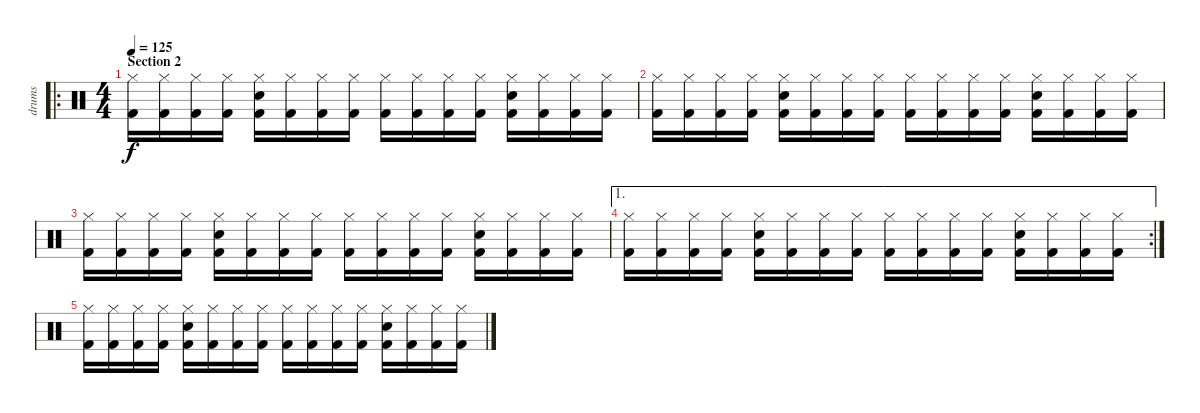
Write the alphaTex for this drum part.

\track ("drums" "drums") {instrument percussion}
\staff {score}
\articulation defaults
\ro
\ts (4 4)
\section ("" "Section 2")
\tempo 125
\clef neutral
\ks c
("Hi-Hat (closed)" "Kick (hit) 2").16{dy f} ("Hi-Hat (closed)" "Kick (hit) 2").16 ("Hi-Hat (closed)" "Kick (hit) 2").16 ("Hi-Hat (closed)" "Kick (hit) 2").16 ("Snare (hit) 2" "Hi-Hat (closed)" "Kick (hit) 2").16 ("Hi-Hat (closed)" "Kick (hit) 2").16 ("Hi-Hat (closed)" "Kick (hit) 2").16 ("Hi-Hat (closed)" "Kick (hit) 2").16 ("Hi-Hat (closed)" "Kick (hit) 2").16 ("Hi-Hat (closed)" "Kick (hit) 2").16 ("Hi-Hat (closed)" "Kick (hit) 2").16 ("Hi-Hat (closed)" "Kick (hit) 2").16 ("Snare (hit) 2" "Hi-Hat (closed)" "Kick (hit) 2").16 ("Hi-Hat (closed)" "Kick (hit) 2").16 ("Hi-Hat (closed)" "Kick (hit) 2").16 ("Hi-Hat (closed)" "Kick (hit) 2").16 |
("Hi-Hat (closed)" "Kick (hit) 2").16 ("Hi-Hat (closed)" "Kick (hit) 2").16 ("Hi-Hat (closed)" "Kick (hit) 2").16 ("Hi-Hat (closed)" "Kick (hit) 2").16 ("Snare (hit) 2" "Hi-Hat (closed)" "Kick (hit) 2").16 ("Hi-Hat (closed)" "Kick (hit) 2").16 ("Hi-Hat (closed)" "Kick (hit) 2").16 ("Hi-Hat (closed)" "Kick (hit) 2").16 ("Hi-Hat (closed)" "Kick (hit) 2").16 ("Hi-Hat (closed)" "Kick (hit) 2").16 ("Hi-Hat (closed)" "Kick (hit) 2").16 ("Hi-Hat (closed)" "Kick (hit) 2").16 ("Snare (hit) 2" "Hi-Hat (closed)" "Kick (hit) 2").16 ("Hi-Hat (closed)" "Kick (hit) 2").16 ("Hi-Hat (closed)" "Kick (hit) 2").16 ("Hi-Hat (closed)" "Kick (hit) 2").16 |
("Hi-Hat (closed)" "Kick (hit) 2").16 ("Hi-Hat (closed)" "Kick (hit) 2").16 ("Hi-Hat (closed)" "Kick (hit) 2").16 ("Hi-Hat (closed)" "Kick (hit) 2").16 ("Snare (hit) 2" "Hi-Hat (closed)" "Kick (hit) 2").16 ("Hi-Hat (closed)" "Kick (hit) 2").16 ("Hi-Hat (closed)" "Kick (hit) 2").16 ("Hi-Hat (closed)" "Kick (hit) 2").16 ("Hi-Hat (closed)" "Kick (hit) 2").16 ("Hi-Hat (closed)" "Kick (hit) 2").16 ("Hi-Hat (closed)" "Kick (hit) 2").16 ("Hi-Hat (closed)" "Kick (hit) 2").16 ("Snare (hit) 2" "Hi-Hat (closed)" "Kick (hit) 2").16 ("Hi-Hat (closed)" "Kick (hit) 2").16 ("Hi-Hat (closed)" "Kick (hit) 2").16 ("Hi-Hat (closed)" "Kick (hit) 2").16 |
\ae 1
\rc 2
("Hi-Hat (closed)" "Kick (hit) 2").16 ("Hi-Hat (closed)" "Kick (hit) 2").16 ("Hi-Hat (closed)" "Kick (hit) 2").16 ("Hi-Hat (closed)" "Kick (hit) 2").16 ("Snare (hit) 2" "Hi-Hat (closed)" "Kick (hit) 2").16 ("Hi-Hat (closed)" "Kick (hit) 2").16 ("Hi-Hat (closed)" "Kick (hit) 2").16 ("Hi-Hat (closed)" "Kick (hit) 2").16 ("Hi-Hat (closed)" "Kick (hit) 2").16 ("Hi-Hat (closed)" "Kick (hit) 2").16 ("Hi-Hat (closed)" "Kick (hit) 2").16 ("Hi-Hat (closed)" "Kick (hit) 2").16 ("Snare (hit) 2" "Hi-Hat (closed)" "Kick (hit) 2").16 ("Hi-Hat (closed)" "Kick (hit) 2").16 ("Hi-Hat (closed)" "Kick (hit) 2").16 ("Hi-Hat (closed)" "Kick (hit) 2").16 |
("Hi-Hat (closed)" "Kick (hit) 2").16 ("Hi-Hat (closed)" "Kick (hit) 2").16 ("Hi-Hat (closed)" "Kick (hit) 2").16 ("Hi-Hat (closed)" "Kick (hit) 2").16 ("Snare (hit) 2" "Hi-Hat (closed)" "Kick (hit) 2").16 ("Hi-Hat (closed)" "Kick (hit) 2").16 ("Hi-Hat (closed)" "Kick (hit) 2").16 ("Hi-Hat (closed)" "Kick (hit) 2").16 ("Hi-Hat (closed)" "Kick (hit) 2").16 ("Hi-Hat (closed)" "Kick (hit) 2").16 ("Hi-Hat (closed)" "Kick (hit) 2").16 ("Hi-Hat (closed)" "Kick (hit) 2").16 ("Snare (hit) 2" "Hi-Hat (closed)" "Kick (hit) 2").16 ("Hi-Hat (closed)" "Kick (hit) 2").16 ("Hi-Hat (closed)" "Kick (hit) 2").16 ("Hi-Hat (closed)" "Kick (hit) 2").16
